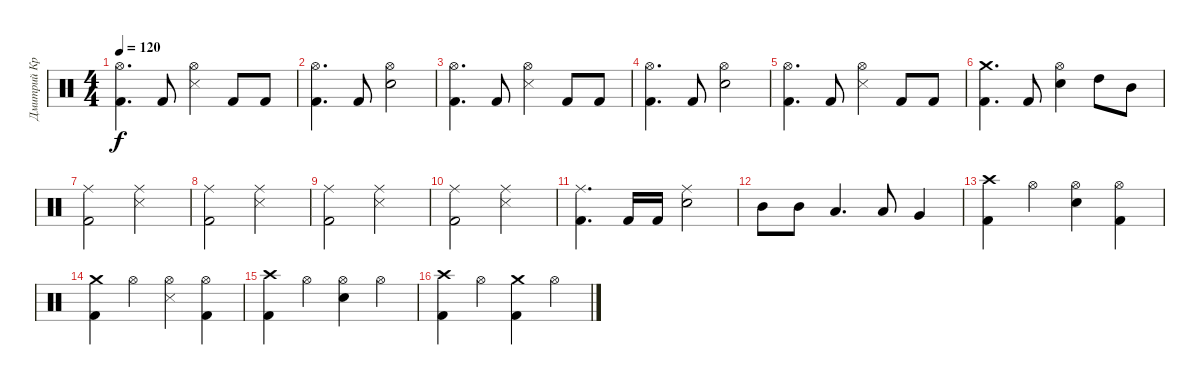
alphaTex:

\track ("Дмитрий Кривенков       (Ударные)" "Дмитрий Кр") {instrument percussion}
\staff {score}
\articulation defaults
\ts (4 4)
\tempo 120
\clef neutral
\ks c
("Hi-Hat (open)" "Kick (hit) 2").4{d dy f} "Kick (hit) 2".8 ("Snare (side stick) 3" "Hi-Hat (open)").4 "Kick (hit) 2".8 "Kick (hit) 2".8 |
("Hi-Hat (open)" "Kick (hit) 2").4{d} "Kick (hit) 2".8 ("Hi-Hat (open)" "Electric Snare (hit)").2 |
("Hi-Hat (open)" "Kick (hit) 2").4{d} "Kick (hit) 2".8 ("Snare (side stick) 3" "Hi-Hat (open)").4 "Kick (hit) 2".8 "Kick (hit) 2".8 |
("Hi-Hat (open)" "Kick (hit) 2").4{d} "Kick (hit) 2".8 ("Hi-Hat (open)" "Electric Snare (hit)").2 |
("Hi-Hat (open)" "Kick (hit) 2").4{d} "Kick (hit) 2".8 ("Snare (side stick) 3" "Hi-Hat (open)").4 "Kick (hit) 2".8 "Kick (hit) 2".8 |
("Crash medium (hit)" "Kick (hit) 2").4{d} "Kick (hit) 2".8 ("Hi-Hat (open)" "Electric Snare (hit)").4 "High Tom (hit)".8 "Mid Tom (hit)".8 |
("Ride (middle)" "Kick (hit) 2").2 ("Snare (side stick) 3" "Ride (middle)").2 |
("Ride (middle)" "Kick (hit) 2").2 ("Snare (side stick) 3" "Ride (middle)").2 |
("Ride (middle)" "Kick (hit) 2").2 ("Snare (side stick) 3" "Ride (middle)").2 |
("Ride (middle)" "Kick (hit) 2").2 ("Snare (side stick) 3" "Ride (middle)").2 |
("Ride (middle)" "Kick (hit) 2").4{d} "Kick (hit) 2".16 "Kick (hit) 2".16 ("Ride (middle)" "Electric Snare (hit)").2 |
"Mid Tom (hit)".8 "Mid Tom (hit)".8 "Low Tom (hit)".4{d} "Low Tom (hit)".8 "Very Low Tom (hit)".4 |
("Crash high (hit)" "Kick (hit) 2").4 "Hi-Hat (open)".4 ("Hi-Hat (open)" "Electric Snare (hit)").4 ("Hi-Hat (open)" "Kick (hit) 2").4 |
("Crash medium (hit)" "Kick (hit) 2").4 "Hi-Hat (open)".4 ("Snare (side stick) 3" "Hi-Hat (open)").4 ("Hi-Hat (open)" "Kick (hit) 2").4 |
("Crash high (hit)" "Kick (hit) 2").4 "Hi-Hat (open)".4 ("Hi-Hat (open)" "Electric Snare (hit)").4 "Hi-Hat (open)".4 |
("Crash high (hit)" "Kick (hit) 2").4 "Hi-Hat (open)".4 ("Crash medium (hit)" "Kick (hit) 2").4 "Hi-Hat (open)".4
